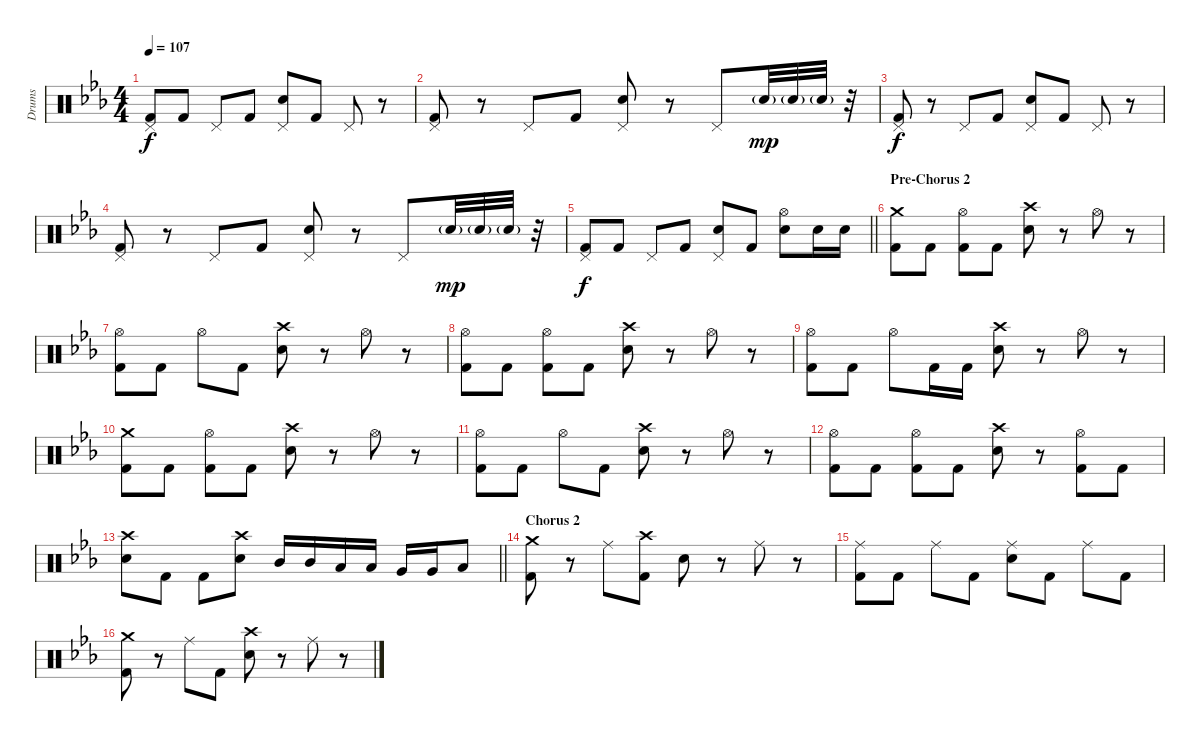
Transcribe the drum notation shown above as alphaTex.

\track ("Drums" "Drums") {instrument percussion}
\staff {score}
\articulation defaults
\ts (4 4)
\tempo 107
\clef neutral
\ks cminor
("Pedal Hi-Hat (hit)" "Kick (hit) 2").8{dy f} "Kick (hit) 2".8 "Pedal Hi-Hat (hit)".8 "Kick (hit) 2".8 ("Pedal Hi-Hat (hit)" "Electric Snare (hit)").8 "Kick (hit) 2".8 "Pedal Hi-Hat (hit)".8 r.8 |
("Pedal Hi-Hat (hit)" "Kick (hit) 2").8 r.8 "Pedal Hi-Hat (hit)".8 "Kick (hit) 2".8 ("Pedal Hi-Hat (hit)" "Electric Snare (hit)").8 r.8 "Pedal Hi-Hat (hit)".8 "Electric Snare (hit)"{g}.32{dy mp} "Electric Snare (hit)"{g}.32 "Electric Snare (hit)"{g}.32 r.32 |
("Pedal Hi-Hat (hit)" "Kick (hit) 2").8{dy f} r.8 "Pedal Hi-Hat (hit)".8 "Kick (hit) 2".8 ("Pedal Hi-Hat (hit)" "Electric Snare (hit)").8 "Kick (hit) 2".8 "Pedal Hi-Hat (hit)".8 r.8 |
("Pedal Hi-Hat (hit)" "Kick (hit) 2").8 r.8 "Pedal Hi-Hat (hit)".8 "Kick (hit) 2".8 ("Pedal Hi-Hat (hit)" "Electric Snare (hit)").8 r.8 "Pedal Hi-Hat (hit)".8 "Electric Snare (hit)"{g}.32{dy mp} "Electric Snare (hit)"{g}.32 "Electric Snare (hit)"{g}.32 r.32 |
\barLineRight lightlight
("Pedal Hi-Hat (hit)" "Kick (hit) 2").8{dy f} "Kick (hit) 2".8 "Pedal Hi-Hat (hit)".8 "Kick (hit) 2".8 ("Pedal Hi-Hat (hit)" "Electric Snare (hit)").8 "Kick (hit) 2".8 ("Hi-Hat (open)" "Electric Snare (hit)").8 "Electric Snare (hit)".16 "Electric Snare (hit)".16 |
\section ("" "Pre-Chorus 2")
("Crash medium (hit)" "Kick (hit) 2").8 "Kick (hit) 2".8 ("Hi-Hat (open)" "Kick (hit) 2").8 "Kick (hit) 2".8 ("Crash high (hit)" "Electric Snare (hit)").8 r.8 "Hi-Hat (open)".8 r.8 |
("Hi-Hat (open)" "Kick (hit) 2").8 "Kick (hit) 2".8 "Hi-Hat (open)".8 "Kick (hit) 2".8 ("Crash high (hit)" "Electric Snare (hit)").8 r.8 "Hi-Hat (open)".8 r.8 |
("Hi-Hat (open)" "Kick (hit) 2").8 "Kick (hit) 2".8 ("Hi-Hat (open)" "Kick (hit) 2").8 "Kick (hit) 2".8 ("Crash high (hit)" "Electric Snare (hit)").8 r.8 "Hi-Hat (open)".8 r.8 |
("Hi-Hat (open)" "Kick (hit) 2").8 "Kick (hit) 2".8 "Hi-Hat (open)".8 "Kick (hit) 2".16 "Kick (hit) 2".16 ("Crash high (hit)" "Electric Snare (hit)").8 r.8 "Hi-Hat (open)".8 r.8 |
("Crash medium (hit)" "Kick (hit) 2").8 "Kick (hit) 2".8 ("Hi-Hat (open)" "Kick (hit) 2").8 "Kick (hit) 2".8 ("Crash high (hit)" "Electric Snare (hit)").8 r.8 "Hi-Hat (open)".8 r.8 |
("Hi-Hat (open)" "Kick (hit) 2").8 "Kick (hit) 2".8 "Hi-Hat (open)".8 "Kick (hit) 2".8 ("Crash high (hit)" "Electric Snare (hit)").8 r.8 "Hi-Hat (open)".8 r.8 |
("Hi-Hat (open)" "Kick (hit) 2").8 "Kick (hit) 2".8 ("Hi-Hat (open)" "Kick (hit) 2").8 "Kick (hit) 2".8 ("Crash high (hit)" "Electric Snare (hit)").8 r.8 ("Hi-Hat (open)" "Kick (hit) 2").8 "Kick (hit) 2".8 |
\barLineRight lightlight
("Crash high (hit)" "Electric Snare (hit)").8 "Kick (hit) 2".8 "Kick (hit) 2".8 ("Crash high (hit)" "Electric Snare (hit)").8 "Mid Tom (hit)".16 "Mid Tom (hit)".16 "Low Tom (hit)".16 "Low Tom (hit)".16 "Very Low Tom (hit)".16 "Very Low Tom (hit)".16 "Low Tom (hit)".8 |
\section ("" "Chorus 2")
("Crash medium (hit)" "Kick (hit) 2").8 r.8 "Ride (middle)".8 ("Crash high (hit)" "Kick (hit) 2").8 "Electric Snare (hit)".8 r.8 "Ride (middle)".8 r.8 |
("Ride (middle)" "Kick (hit) 2").8 "Kick (hit) 2".8 "Ride (middle)".8 "Kick (hit) 2".8 ("Ride (middle)" "Electric Snare (hit)").8 "Kick (hit) 2".8 "Ride (middle)".8 "Kick (hit) 2".8 |
("Crash medium (hit)" "Kick (hit) 2").8 r.8 "Ride (middle)".8 "Kick (hit) 2".8 ("Crash high (hit)" "Electric Snare (hit)").8 r.8 "Ride (middle)".8 r.8
